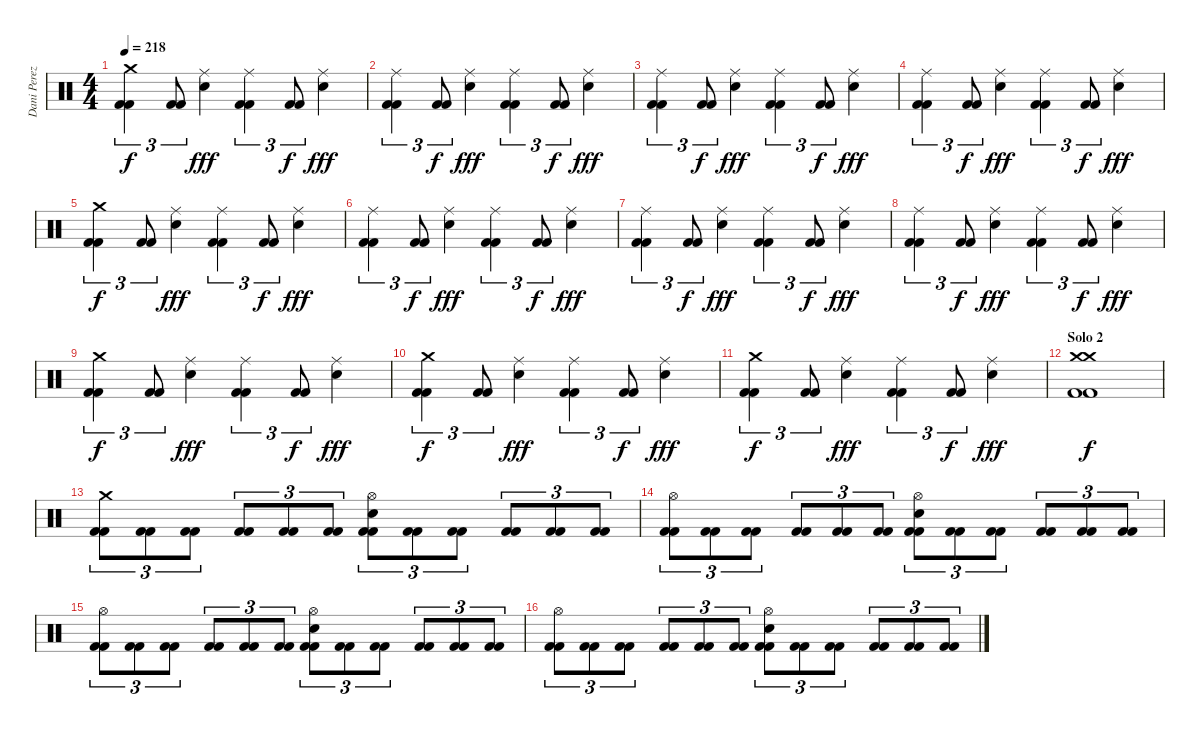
\track ("Dani Perez" "Dani Perez") {instrument percussion}
\staff {score}
\articulation defaults
\ts (4 4)
\tempo 218
\clef neutral
\ks c
("Crash medium (hit)" "Kick (hit) 2" "Kick (hit) 2").4{tu (3 2) dy f} ("Kick (hit) 2" "Kick (hit) 2").8{tu (3 2)} ("Ride (middle)" "Snare (hit) 2").4{dy fff} ("Ride (middle)" "Kick (hit) 2" "Kick (hit) 2").4{tu (3 2)} ("Kick (hit) 2" "Kick (hit) 2").8{tu (3 2) dy f} ("Ride (middle)" "Snare (hit) 2").4{dy fff} |
("Ride (middle)" "Kick (hit) 2" "Kick (hit) 2").4{tu (3 2)} ("Kick (hit) 2" "Kick (hit) 2").8{tu (3 2) dy f} ("Ride (middle)" "Snare (hit) 2").4{dy fff} ("Ride (middle)" "Kick (hit) 2" "Kick (hit) 2").4{tu (3 2)} ("Kick (hit) 2" "Kick (hit) 2").8{tu (3 2) dy f} ("Ride (middle)" "Snare (hit) 2").4{dy fff} |
("Ride (middle)" "Kick (hit) 2" "Kick (hit) 2").4{tu (3 2)} ("Kick (hit) 2" "Kick (hit) 2").8{tu (3 2) dy f} ("Ride (middle)" "Snare (hit) 2").4{dy fff} ("Ride (middle)" "Kick (hit) 2" "Kick (hit) 2").4{tu (3 2)} ("Kick (hit) 2" "Kick (hit) 2").8{tu (3 2) dy f} ("Ride (middle)" "Snare (hit) 2").4{dy fff} |
("Ride (middle)" "Kick (hit) 2" "Kick (hit) 2").4{tu (3 2)} ("Kick (hit) 2" "Kick (hit) 2").8{tu (3 2) dy f} ("Ride (middle)" "Snare (hit) 2").4{dy fff} ("Ride (middle)" "Kick (hit) 2" "Kick (hit) 2").4{tu (3 2)} ("Kick (hit) 2" "Kick (hit) 2").8{tu (3 2) dy f} ("Ride (middle)" "Snare (hit) 2").4{dy fff} |
("Crash medium (hit)" "Kick (hit) 2" "Kick (hit) 2").4{tu (3 2) dy f} ("Kick (hit) 2" "Kick (hit) 2").8{tu (3 2)} ("Ride (middle)" "Snare (hit) 2").4{dy fff} ("Ride (middle)" "Kick (hit) 2" "Kick (hit) 2").4{tu (3 2)} ("Kick (hit) 2" "Kick (hit) 2").8{tu (3 2) dy f} ("Ride (middle)" "Snare (hit) 2").4{dy fff} |
("Ride (middle)" "Kick (hit) 2" "Kick (hit) 2").4{tu (3 2)} ("Kick (hit) 2" "Kick (hit) 2").8{tu (3 2) dy f} ("Ride (middle)" "Snare (hit) 2").4{dy fff} ("Ride (middle)" "Kick (hit) 2" "Kick (hit) 2").4{tu (3 2)} ("Kick (hit) 2" "Kick (hit) 2").8{tu (3 2) dy f} ("Ride (middle)" "Snare (hit) 2").4{dy fff} |
("Ride (middle)" "Kick (hit) 2" "Kick (hit) 2").4{tu (3 2)} ("Kick (hit) 2" "Kick (hit) 2").8{tu (3 2) dy f} ("Ride (middle)" "Snare (hit) 2").4{dy fff} ("Ride (middle)" "Kick (hit) 2" "Kick (hit) 2").4{tu (3 2)} ("Kick (hit) 2" "Kick (hit) 2").8{tu (3 2) dy f} ("Ride (middle)" "Snare (hit) 2").4{dy fff} |
("Ride (middle)" "Kick (hit) 2" "Kick (hit) 2").4{tu (3 2)} ("Kick (hit) 2" "Kick (hit) 2").8{tu (3 2) dy f} ("Ride (middle)" "Snare (hit) 2").4{dy fff} ("Ride (middle)" "Kick (hit) 2" "Kick (hit) 2").4{tu (3 2)} ("Kick (hit) 2" "Kick (hit) 2").8{tu (3 2) dy f} ("Ride (middle)" "Snare (hit) 2").4{dy fff} |
("Crash medium (hit)" "Kick (hit) 2" "Kick (hit) 2").4{tu (3 2) dy f} ("Kick (hit) 2" "Kick (hit) 2").8{tu (3 2)} ("Ride (middle)" "Snare (hit) 2").4{dy fff} ("Ride (middle)" "Kick (hit) 2" "Kick (hit) 2").4{tu (3 2)} ("Kick (hit) 2" "Kick (hit) 2").8{tu (3 2) dy f} ("Ride (middle)" "Snare (hit) 2").4{dy fff} |
("Crash medium (hit)" "Kick (hit) 2" "Kick (hit) 2").4{tu (3 2) dy f} ("Kick (hit) 2" "Kick (hit) 2").8{tu (3 2)} ("Ride (middle)" "Snare (hit) 2").4{dy fff} ("Ride (middle)" "Kick (hit) 2" "Kick (hit) 2").4{tu (3 2)} ("Kick (hit) 2" "Kick (hit) 2").8{tu (3 2) dy f} ("Ride (middle)" "Snare (hit) 2").4{dy fff} |
("Crash medium (hit)" "Kick (hit) 2" "Kick (hit) 2").4{tu (3 2) dy f} ("Kick (hit) 2" "Kick (hit) 2").8{tu (3 2)} ("Ride (middle)" "Snare (hit) 2").4{dy fff} ("Ride (middle)" "Kick (hit) 2" "Kick (hit) 2").4{tu (3 2)} ("Kick (hit) 2" "Kick (hit) 2").8{tu (3 2) dy f} ("Ride (middle)" "Snare (hit) 2").4{dy fff} |
\section ("" "Solo 2")
("Crash medium (hit)" "Crash medium (hit)" "Kick (hit) 2" "Kick (hit) 2").1{dy f} |
("Crash medium (hit)" "Kick (hit) 2" "Kick (hit) 2").8{tu (3 2)} ("Kick (hit) 2" "Kick (hit) 2").8{tu (3 2)} ("Kick (hit) 2" "Kick (hit) 2").8{tu (3 2)} ("Kick (hit) 2" "Kick (hit) 2").8{tu (3 2)} ("Kick (hit) 2" "Kick (hit) 2").8{tu (3 2)} ("Kick (hit) 2" "Kick (hit) 2").8{tu (3 2)} ("Hi-Hat (open)" "Snare (hit) 2" "Kick (hit) 2" "Kick (hit) 2").8{tu (3 2)} ("Kick (hit) 2" "Kick (hit) 2").8{tu (3 2)} ("Kick (hit) 2" "Kick (hit) 2").8{tu (3 2)} ("Kick (hit) 2" "Kick (hit) 2").8{tu (3 2)} ("Kick (hit) 2" "Kick (hit) 2").8{tu (3 2)} ("Kick (hit) 2" "Kick (hit) 2").8{tu (3 2)} |
("Hi-Hat (open)" "Kick (hit) 2" "Kick (hit) 2").8{tu (3 2)} ("Kick (hit) 2" "Kick (hit) 2").8{tu (3 2)} ("Kick (hit) 2" "Kick (hit) 2").8{tu (3 2)} ("Kick (hit) 2" "Kick (hit) 2").8{tu (3 2)} ("Kick (hit) 2" "Kick (hit) 2").8{tu (3 2)} ("Kick (hit) 2" "Kick (hit) 2").8{tu (3 2)} ("Hi-Hat (open)" "Snare (hit) 2" "Kick (hit) 2" "Kick (hit) 2").8{tu (3 2)} ("Kick (hit) 2" "Kick (hit) 2").8{tu (3 2)} ("Kick (hit) 2" "Kick (hit) 2").8{tu (3 2)} ("Kick (hit) 2" "Kick (hit) 2").8{tu (3 2)} ("Kick (hit) 2" "Kick (hit) 2").8{tu (3 2)} ("Kick (hit) 2" "Kick (hit) 2").8{tu (3 2)} |
("Hi-Hat (open)" "Kick (hit) 2" "Kick (hit) 2").8{tu (3 2)} ("Kick (hit) 2" "Kick (hit) 2").8{tu (3 2)} ("Kick (hit) 2" "Kick (hit) 2").8{tu (3 2)} ("Kick (hit) 2" "Kick (hit) 2").8{tu (3 2)} ("Kick (hit) 2" "Kick (hit) 2").8{tu (3 2)} ("Kick (hit) 2" "Kick (hit) 2").8{tu (3 2)} ("Hi-Hat (open)" "Snare (hit) 2" "Kick (hit) 2" "Kick (hit) 2").8{tu (3 2)} ("Kick (hit) 2" "Kick (hit) 2").8{tu (3 2)} ("Kick (hit) 2" "Kick (hit) 2").8{tu (3 2)} ("Kick (hit) 2" "Kick (hit) 2").8{tu (3 2)} ("Kick (hit) 2" "Kick (hit) 2").8{tu (3 2)} ("Kick (hit) 2" "Kick (hit) 2").8{tu (3 2)} |
("Hi-Hat (open)" "Kick (hit) 2" "Kick (hit) 2").8{tu (3 2)} ("Kick (hit) 2" "Kick (hit) 2").8{tu (3 2)} ("Kick (hit) 2" "Kick (hit) 2").8{tu (3 2)} ("Kick (hit) 2" "Kick (hit) 2").8{tu (3 2)} ("Kick (hit) 2" "Kick (hit) 2").8{tu (3 2)} ("Kick (hit) 2" "Kick (hit) 2").8{tu (3 2)} ("Hi-Hat (open)" "Snare (hit) 2" "Kick (hit) 2" "Kick (hit) 2").8{tu (3 2)} ("Kick (hit) 2" "Kick (hit) 2").8{tu (3 2)} ("Kick (hit) 2" "Kick (hit) 2").8{tu (3 2)} ("Kick (hit) 2" "Kick (hit) 2").8{tu (3 2)} ("Kick (hit) 2" "Kick (hit) 2").8{tu (3 2)} ("Kick (hit) 2" "Kick (hit) 2").8{tu (3 2)}
